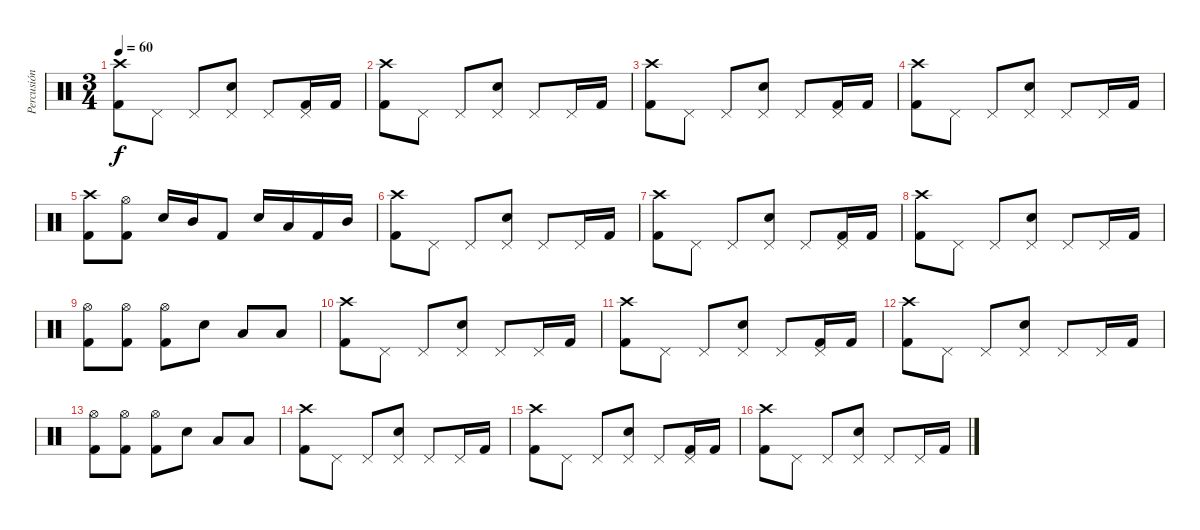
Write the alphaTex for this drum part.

\track ("Percusión" "Percusión") {instrument percussion}
\staff {score}
\articulation defaults
\ts (3 4)
\tempo 60
\clef neutral
\ks c
("Crash high (hit)" "Kick (hit) 2").8{dy f} "Pedal Hi-Hat (hit)".8 "Pedal Hi-Hat (hit)".8 ("Pedal Hi-Hat (hit)" "Snare (hit) 2").8 "Pedal Hi-Hat (hit)".8 ("Pedal Hi-Hat (hit)" "Kick (hit) 2").16 "Kick (hit) 2".16 |
("Kick (hit) 2" "Crash high (hit)").8 "Pedal Hi-Hat (hit)".8 "Pedal Hi-Hat (hit)".8 ("Pedal Hi-Hat (hit)" "Snare (hit) 2").8 "Pedal Hi-Hat (hit)".8 "Pedal Hi-Hat (hit)".16 "Kick (hit) 2".16 |
("Crash high (hit)" "Kick (hit) 2").8 "Pedal Hi-Hat (hit)".8 "Pedal Hi-Hat (hit)".8 ("Pedal Hi-Hat (hit)" "Snare (hit) 2").8 "Pedal Hi-Hat (hit)".8 ("Pedal Hi-Hat (hit)" "Kick (hit) 2").16 "Kick (hit) 2".16 |
("Kick (hit) 2" "Crash high (hit)").8 "Pedal Hi-Hat (hit)".8 "Pedal Hi-Hat (hit)".8 ("Pedal Hi-Hat (hit)" "Snare (hit) 2").8 "Pedal Hi-Hat (hit)".8 "Pedal Hi-Hat (hit)".16 "Kick (hit) 2".16 |
("Crash high (hit)" "Kick (hit) 2").8 ("Hi-Hat (open)" "Kick (hit) 2").8 "Snare (hit) 2".16 "Mid Tom (hit)".16 "Kick (hit) 2".8 "Snare (hit) 2".16 "Low Tom (hit)".16 "Kick (hit) 2".16 "Mid Tom (hit)".16 |
("Kick (hit) 2" "Crash high (hit)").8 "Pedal Hi-Hat (hit)".8 "Pedal Hi-Hat (hit)".8 ("Pedal Hi-Hat (hit)" "Snare (hit) 2").8 "Pedal Hi-Hat (hit)".8 "Pedal Hi-Hat (hit)".16 "Kick (hit) 2".16 |
("Crash high (hit)" "Kick (hit) 2").8 "Pedal Hi-Hat (hit)".8 "Pedal Hi-Hat (hit)".8 ("Pedal Hi-Hat (hit)" "Snare (hit) 2").8 "Pedal Hi-Hat (hit)".8 ("Pedal Hi-Hat (hit)" "Kick (hit) 2").16 "Kick (hit) 2".16 |
("Kick (hit) 2" "Crash high (hit)").8 "Pedal Hi-Hat (hit)".8 "Pedal Hi-Hat (hit)".8 ("Pedal Hi-Hat (hit)" "Snare (hit) 2").8 "Pedal Hi-Hat (hit)".8 "Pedal Hi-Hat (hit)".16 "Kick (hit) 2".16 |
("Hi-Hat (open)" "Kick (hit) 2").8 ("Hi-Hat (open)" "Kick (hit) 2").8 ("Hi-Hat (open)" "Kick (hit) 2").8 "Snare (hit) 2".8 "Low Tom (hit)".8 "Low Tom (hit)".8 |
("Kick (hit) 2" "Crash high (hit)").8 "Pedal Hi-Hat (hit)".8 "Pedal Hi-Hat (hit)".8 ("Pedal Hi-Hat (hit)" "Snare (hit) 2").8 "Pedal Hi-Hat (hit)".8 "Pedal Hi-Hat (hit)".16 "Kick (hit) 2".16 |
("Crash high (hit)" "Kick (hit) 2").8 "Pedal Hi-Hat (hit)".8 "Pedal Hi-Hat (hit)".8 ("Pedal Hi-Hat (hit)" "Snare (hit) 2").8 "Pedal Hi-Hat (hit)".8 ("Pedal Hi-Hat (hit)" "Kick (hit) 2").16 "Kick (hit) 2".16 |
("Kick (hit) 2" "Crash high (hit)").8 "Pedal Hi-Hat (hit)".8 "Pedal Hi-Hat (hit)".8 ("Pedal Hi-Hat (hit)" "Snare (hit) 2").8 "Pedal Hi-Hat (hit)".8 "Pedal Hi-Hat (hit)".16 "Kick (hit) 2".16 |
("Hi-Hat (open)" "Kick (hit) 2").8 ("Hi-Hat (open)" "Kick (hit) 2").8 ("Hi-Hat (open)" "Kick (hit) 2").8 "Snare (hit) 2".8 "Low Tom (hit)".8 "Low Tom (hit)".8 |
("Kick (hit) 2" "Crash high (hit)").8 "Pedal Hi-Hat (hit)".8 "Pedal Hi-Hat (hit)".8 ("Pedal Hi-Hat (hit)" "Snare (hit) 2").8 "Pedal Hi-Hat (hit)".8 "Pedal Hi-Hat (hit)".16 "Kick (hit) 2".16 |
("Crash high (hit)" "Kick (hit) 2").8 "Pedal Hi-Hat (hit)".8 "Pedal Hi-Hat (hit)".8 ("Pedal Hi-Hat (hit)" "Snare (hit) 2").8 "Pedal Hi-Hat (hit)".8 ("Pedal Hi-Hat (hit)" "Kick (hit) 2").16 "Kick (hit) 2".16 |
("Kick (hit) 2" "Crash high (hit)").8 "Pedal Hi-Hat (hit)".8 "Pedal Hi-Hat (hit)".8 ("Pedal Hi-Hat (hit)" "Snare (hit) 2").8 "Pedal Hi-Hat (hit)".8 "Pedal Hi-Hat (hit)".16 "Kick (hit) 2".16
